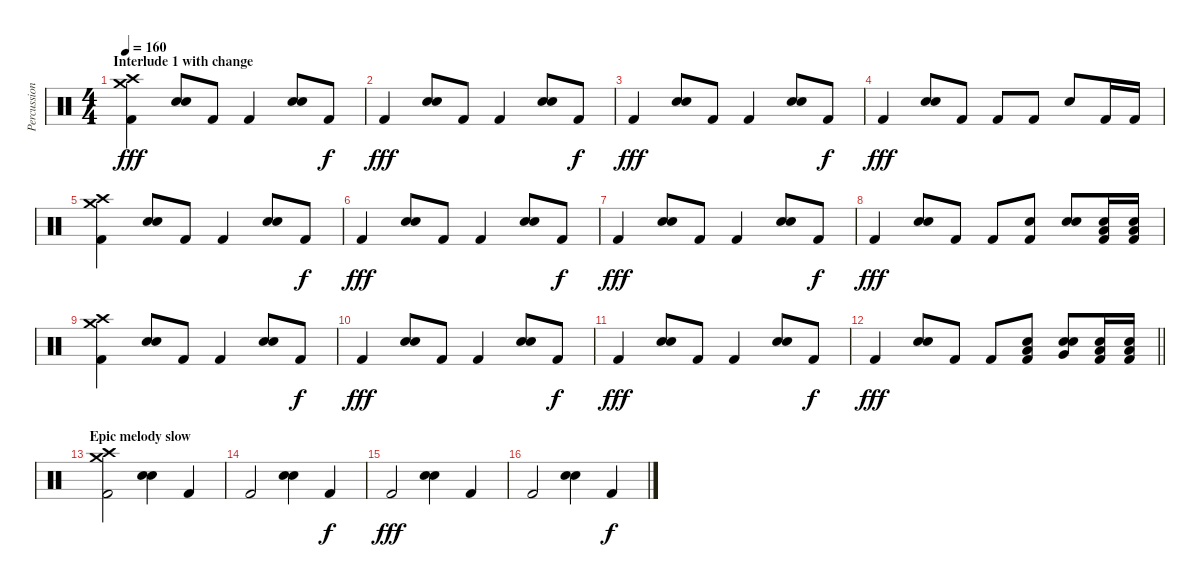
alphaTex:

\track ("Percussion" "Percussion") {instrument percussion}
\staff {score}
\articulation defaults
\ts (4 4)
\section ("" "Interlude 1 with change")
\tempo 160
\clef neutral
\ks c
("Crash high (hit)" "Kick (hit) 2" "Crash medium (hit)").4{dy fff} ("Snare (hit) 2" "Electric Snare (hit)").8 "Kick (hit) 2".8 "Kick (hit) 2".4 ("Snare (hit) 2" "Electric Snare (hit)").8 "Kick (hit) 2".8{dy f} |
"Kick (hit) 2".4{dy fff} ("Snare (hit) 2" "Electric Snare (hit)").8 "Kick (hit) 2".8 "Kick (hit) 2".4 ("Snare (hit) 2" "Electric Snare (hit)").8 "Kick (hit) 2".8{dy f} |
"Kick (hit) 2".4{dy fff} ("Snare (hit) 2" "Electric Snare (hit)").8 "Kick (hit) 2".8 "Kick (hit) 2".4 ("Snare (hit) 2" "Electric Snare (hit)").8 "Kick (hit) 2".8{dy f} |
"Kick (hit) 2".4{dy fff} ("Snare (hit) 2" "Electric Snare (hit)").8 "Kick (hit) 2".8 "Kick (hit) 2".8 "Kick (hit) 2".8 "Snare (hit) 2".8 "Kick (hit) 2".16 "Kick (hit) 2".16 |
("Crash high (hit)" "Kick (hit) 2" "Crash medium (hit)").4 ("Snare (hit) 2" "Electric Snare (hit)").8 "Kick (hit) 2".8 "Kick (hit) 2".4 ("Snare (hit) 2" "Electric Snare (hit)").8 "Kick (hit) 2".8{dy f} |
"Kick (hit) 2".4{dy fff} ("Snare (hit) 2" "Electric Snare (hit)").8 "Kick (hit) 2".8 "Kick (hit) 2".4 ("Snare (hit) 2" "Electric Snare (hit)").8 "Kick (hit) 2".8{dy f} |
"Kick (hit) 2".4{dy fff} ("Snare (hit) 2" "Electric Snare (hit)").8 "Kick (hit) 2".8 "Kick (hit) 2".4 ("Snare (hit) 2" "Electric Snare (hit)").8 "Kick (hit) 2".8{dy f} |
"Kick (hit) 2".4{dy fff} ("Snare (hit) 2" "Electric Snare (hit)").8 "Kick (hit) 2".8 "Kick (hit) 2".8 ("Kick (hit) 2" "Snare (hit) 2").8 ("Snare (hit) 2" "Snare (hit) 2").8 ("Kick (hit) 2" "Snare (hit) 2" "Low Floor Tom (hit)").16 ("Kick (hit) 2" "Snare (hit) 2" "Low Floor Tom (hit)").16 |
("Crash high (hit)" "Kick (hit) 2" "Crash medium (hit)").4 ("Snare (hit) 2" "Electric Snare (hit)").8 "Kick (hit) 2".8 "Kick (hit) 2".4 ("Snare (hit) 2" "Electric Snare (hit)").8 "Kick (hit) 2".8{dy f} |
"Kick (hit) 2".4{dy fff} ("Snare (hit) 2" "Electric Snare (hit)").8 "Kick (hit) 2".8 "Kick (hit) 2".4 ("Snare (hit) 2" "Electric Snare (hit)").8 "Kick (hit) 2".8{dy f} |
"Kick (hit) 2".4{dy fff} ("Snare (hit) 2" "Electric Snare (hit)").8 "Kick (hit) 2".8 "Kick (hit) 2".4 ("Snare (hit) 2" "Electric Snare (hit)").8 "Kick (hit) 2".8{dy f} |
\barLineRight lightlight "Kick (hit) 2".4{dy fff}
("Snare (hit) 2" "Electric Snare (hit)").8 "Kick (hit) 2".8 "Kick (hit) 2".8 ("Kick (hit) 2" "Snare (hit) 2" "Low Tom (hit)").8 ("Snare (hit) 2" "Snare (hit) 2" "Very Low Tom (hit)").8 ("Kick (hit) 2" "Snare (hit) 2" "Low Floor Tom (hit)").16 ("Kick (hit) 2" "Snare (hit) 2" "Low Floor Tom (hit)").16 |
\section ("" "Epic melody slow")
("Crash high (hit)" "Kick (hit) 2" "Crash medium (hit)").2 ("Snare (hit) 2" "Electric Snare (hit)").4 "Kick (hit) 2".4 |
"Kick (hit) 2".2 ("Snare (hit) 2" "Electric Snare (hit)").4 "Kick (hit) 2".4{dy f} |
"Kick (hit) 2".2{dy fff} ("Snare (hit) 2" "Electric Snare (hit)").4 "Kick (hit) 2".4 |
"Kick (hit) 2".2 ("Snare (hit) 2" "Electric Snare (hit)").4 "Kick (hit) 2".4{dy f}
